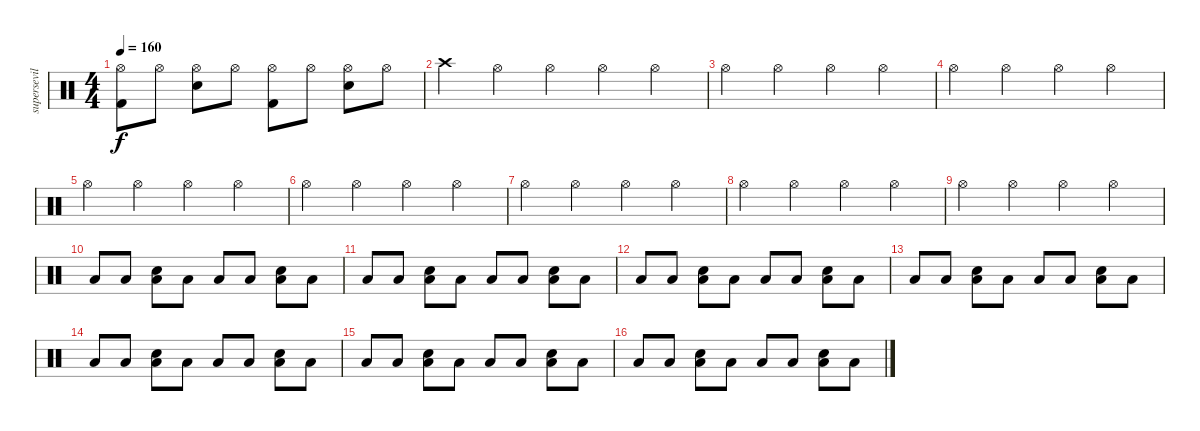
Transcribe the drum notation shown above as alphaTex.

\track ("supersevilla" "supersevil") {instrument percussion}
\staff {score}
\articulation defaults
\ts (4 4)
\tempo 160
\clef neutral
\ks c
("Hi-Hat (open)" "Kick (hit) 2").8{dy f} "Hi-Hat (open)".8 ("Hi-Hat (open)" "Electric Snare (hit)").8 "Hi-Hat (open)".8 ("Hi-Hat (open)" "Kick (hit) 2").8 "Hi-Hat (open)".8 ("Hi-Hat (open)" "Electric Snare (hit)").8 "Hi-Hat (open)".8 |
"Crash high (hit)".2 "Hi-Hat (open)".2 "Hi-Hat (open)".2 "Hi-Hat (open)".2 "Hi-Hat (open)".2 |
"Hi-Hat (open)".2 "Hi-Hat (open)".2 "Hi-Hat (open)".2 "Hi-Hat (open)".2 |
"Hi-Hat (open)".2 "Hi-Hat (open)".2 "Hi-Hat (open)".2 "Hi-Hat (open)".2 |
"Hi-Hat (open)".2 "Hi-Hat (open)".2 "Hi-Hat (open)".2 "Hi-Hat (open)".2 |
"Hi-Hat (open)".2 "Hi-Hat (open)".2 "Hi-Hat (open)".2 "Hi-Hat (open)".2 |
"Hi-Hat (open)".2 "Hi-Hat (open)".2 "Hi-Hat (open)".2 "Hi-Hat (open)".2 |
"Hi-Hat (open)".2 "Hi-Hat (open)".2 "Hi-Hat (open)".2 "Hi-Hat (open)".2 |
"Hi-Hat (open)".2 "Hi-Hat (open)".2 "Hi-Hat (open)".2 "Hi-Hat (open)".2 |
"Low Floor Tom (hit)".8 "Low Floor Tom (hit)".8 ("Low Floor Tom (hit)" "Electric Snare (hit)").8 "Low Floor Tom (hit)".8 "Low Floor Tom (hit)".8 "Low Floor Tom (hit)".8 ("Low Floor Tom (hit)" "Electric Snare (hit)").8 "Low Floor Tom (hit)".8 |
"Low Floor Tom (hit)".8 "Low Floor Tom (hit)".8 ("Low Floor Tom (hit)" "Electric Snare (hit)").8 "Low Floor Tom (hit)".8 "Low Floor Tom (hit)".8 "Low Floor Tom (hit)".8 ("Low Floor Tom (hit)" "Electric Snare (hit)").8 "Low Floor Tom (hit)".8 |
"Low Floor Tom (hit)".8 "Low Floor Tom (hit)".8 ("Low Floor Tom (hit)" "Electric Snare (hit)").8 "Low Floor Tom (hit)".8 "Low Floor Tom (hit)".8 "Low Floor Tom (hit)".8 ("Low Floor Tom (hit)" "Electric Snare (hit)").8 "Low Floor Tom (hit)".8 |
"Low Floor Tom (hit)".8 "Low Floor Tom (hit)".8 ("Low Floor Tom (hit)" "Electric Snare (hit)").8 "Low Floor Tom (hit)".8 "Low Floor Tom (hit)".8 "Low Floor Tom (hit)".8 ("Low Floor Tom (hit)" "Electric Snare (hit)").8 "Low Floor Tom (hit)".8 |
"Low Floor Tom (hit)".8 "Low Floor Tom (hit)".8 ("Low Floor Tom (hit)" "Electric Snare (hit)").8 "Low Floor Tom (hit)".8 "Low Floor Tom (hit)".8 "Low Floor Tom (hit)".8 ("Low Floor Tom (hit)" "Electric Snare (hit)").8 "Low Floor Tom (hit)".8 |
"Low Floor Tom (hit)".8 "Low Floor Tom (hit)".8 ("Low Floor Tom (hit)" "Electric Snare (hit)").8 "Low Floor Tom (hit)".8 "Low Floor Tom (hit)".8 "Low Floor Tom (hit)".8 ("Low Floor Tom (hit)" "Electric Snare (hit)").8 "Low Floor Tom (hit)".8 |
"Low Floor Tom (hit)".8 "Low Floor Tom (hit)".8 ("Low Floor Tom (hit)" "Electric Snare (hit)").8 "Low Floor Tom (hit)".8 "Low Floor Tom (hit)".8 "Low Floor Tom (hit)".8 ("Low Floor Tom (hit)" "Electric Snare (hit)").8 "Low Floor Tom (hit)".8
